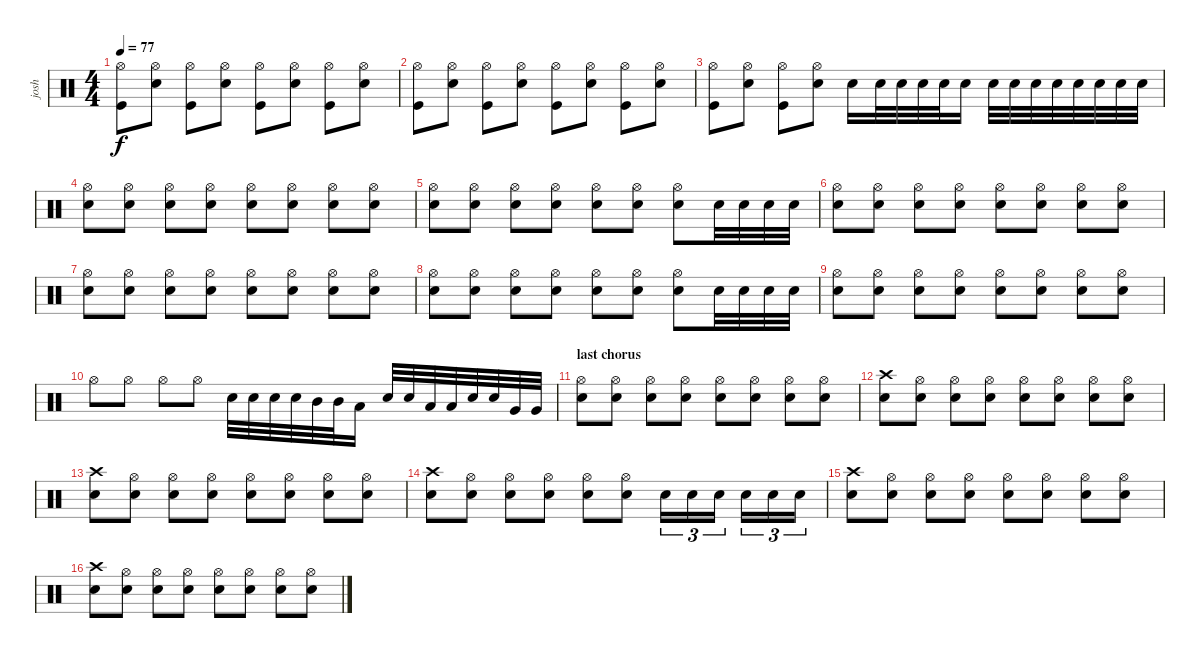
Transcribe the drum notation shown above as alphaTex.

\track ("josh" "josh") {instrument percussion}
\staff {score}
\articulation defaults
\ts (4 4)
\tempo 77
\clef neutral
\ks c
("Hi-Hat (open)" "Kick (hit)").8{dy f} ("Hi-Hat (open)" "Snare (hit) 2").8 ("Hi-Hat (open)" "Kick (hit)").8 ("Hi-Hat (open)" "Snare (hit) 2").8 ("Hi-Hat (open)" "Kick (hit)").8 ("Hi-Hat (open)" "Snare (hit) 2").8 ("Hi-Hat (open)" "Kick (hit)").8 ("Hi-Hat (open)" "Snare (hit) 2").8 |
("Hi-Hat (open)" "Kick (hit)").8 ("Hi-Hat (open)" "Snare (hit) 2").8 ("Hi-Hat (open)" "Kick (hit)").8 ("Hi-Hat (open)" "Snare (hit) 2").8 ("Hi-Hat (open)" "Kick (hit)").8 ("Hi-Hat (open)" "Snare (hit) 2").8 ("Hi-Hat (open)" "Kick (hit)").8 ("Hi-Hat (open)" "Snare (hit) 2").8 |
("Hi-Hat (open)" "Kick (hit)").8 ("Hi-Hat (open)" "Snare (hit) 2").8 ("Hi-Hat (open)" "Kick (hit)").8 ("Hi-Hat (open)" "Snare (hit) 2").8 "Snare (hit) 2".16 "Snare (hit) 2".32 "Snare (hit) 2".32 "Snare (hit) 2".32 "Snare (hit) 2".32 "Snare (hit) 2".16 "Snare (hit) 2".32 "Snare (hit) 2".32 "Snare (hit) 2".32 "Snare (hit) 2".32 "Snare (hit) 2".32 "Snare (hit) 2".32 "Snare (hit) 2".32 "Snare (hit) 2".32 |
("Hi-Hat (open)" "Snare (hit) 2").8 ("Hi-Hat (open)" "Snare (hit) 2").8 ("Hi-Hat (open)" "Snare (hit) 2").8 ("Hi-Hat (open)" "Snare (hit) 2").8 ("Hi-Hat (open)" "Snare (hit) 2").8 ("Hi-Hat (open)" "Snare (hit) 2").8 ("Hi-Hat (open)" "Snare (hit) 2").8 ("Hi-Hat (open)" "Snare (hit) 2").8 |
("Hi-Hat (open)" "Snare (hit) 2").8 ("Hi-Hat (open)" "Snare (hit) 2").8 ("Hi-Hat (open)" "Snare (hit) 2").8 ("Hi-Hat (open)" "Snare (hit) 2").8 ("Hi-Hat (open)" "Snare (hit) 2").8 ("Hi-Hat (open)" "Snare (hit) 2").8 ("Hi-Hat (open)" "Snare (hit) 2").8 "Snare (hit) 2".32 "Snare (hit) 2".32 "Snare (hit) 2".32 "Snare (hit) 2".32 |
("Hi-Hat (open)" "Snare (hit) 2").8 ("Hi-Hat (open)" "Snare (hit) 2").8 ("Hi-Hat (open)" "Snare (hit) 2").8 ("Hi-Hat (open)" "Snare (hit) 2").8 ("Hi-Hat (open)" "Snare (hit) 2").8 ("Hi-Hat (open)" "Snare (hit) 2").8 ("Hi-Hat (open)" "Snare (hit) 2").8 ("Hi-Hat (open)" "Snare (hit) 2").8 |
("Hi-Hat (open)" "Snare (hit) 2").8 ("Hi-Hat (open)" "Snare (hit) 2").8 ("Hi-Hat (open)" "Snare (hit) 2").8 ("Hi-Hat (open)" "Snare (hit) 2").8 ("Hi-Hat (open)" "Snare (hit) 2").8 ("Hi-Hat (open)" "Snare (hit) 2").8 ("Hi-Hat (open)" "Snare (hit) 2").8 ("Hi-Hat (open)" "Snare (hit) 2").8 |
("Hi-Hat (open)" "Snare (hit) 2").8 ("Hi-Hat (open)" "Snare (hit) 2").8 ("Hi-Hat (open)" "Snare (hit) 2").8 ("Hi-Hat (open)" "Snare (hit) 2").8 ("Hi-Hat (open)" "Snare (hit) 2").8 ("Hi-Hat (open)" "Snare (hit) 2").8 ("Hi-Hat (open)" "Snare (hit) 2").8 "Snare (hit) 2".32 "Snare (hit) 2".32 "Snare (hit) 2".32 "Snare (hit) 2".32 |
("Hi-Hat (open)" "Snare (hit) 2").8 ("Hi-Hat (open)" "Snare (hit) 2").8 ("Hi-Hat (open)" "Snare (hit) 2").8 ("Hi-Hat (open)" "Snare (hit) 2").8 ("Hi-Hat (open)" "Snare (hit) 2").8 ("Hi-Hat (open)" "Snare (hit) 2").8 ("Hi-Hat (open)" "Snare (hit) 2").8 ("Hi-Hat (open)" "Snare (hit) 2").8 |
"Hi-Hat (open)".8 "Hi-Hat (open)".8 "Hi-Hat (open)".8 "Hi-Hat (open)".8 "Snare (hit) 2".32 "Snare (hit) 2".32 "Snare (hit) 2".32 "Snare (hit) 2".32 "Mid Tom (hit)".32 "Mid Tom (hit)".32 "Low Tom (hit)".16 "Snare (hit) 2".32 "Snare (hit) 2".32 "Low Tom (hit)".32 "Low Tom (hit)".32 "Snare (hit) 2".32 "Snare (hit) 2".32 "Very Low Tom (hit)".32 "Very Low Tom (hit)".32 |
\section ("" "last chorus")
("Hi-Hat (open)" "Snare (hit) 2").8 ("Hi-Hat (open)" "Snare (hit) 2").8 ("Hi-Hat (open)" "Snare (hit) 2").8 ("Hi-Hat (open)" "Snare (hit) 2").8 ("Hi-Hat (open)" "Snare (hit) 2").8 ("Hi-Hat (open)" "Snare (hit) 2").8 ("Hi-Hat (open)" "Snare (hit) 2").8 ("Hi-Hat (open)" "Snare (hit) 2").8 |
("Crash high (hit)" "Snare (hit) 2").8 ("Hi-Hat (open)" "Snare (hit) 2").8 ("Hi-Hat (open)" "Snare (hit) 2").8 ("Hi-Hat (open)" "Snare (hit) 2").8 ("Hi-Hat (open)" "Snare (hit) 2").8 ("Hi-Hat (open)" "Snare (hit) 2").8 ("Hi-Hat (open)" "Snare (hit) 2").8 ("Hi-Hat (open)" "Snare (hit) 2").8 |
("Crash high (hit)" "Snare (hit) 2").8 ("Hi-Hat (open)" "Snare (hit) 2").8 ("Hi-Hat (open)" "Snare (hit) 2").8 ("Hi-Hat (open)" "Snare (hit) 2").8 ("Hi-Hat (open)" "Snare (hit) 2").8 ("Hi-Hat (open)" "Snare (hit) 2").8 ("Hi-Hat (open)" "Snare (hit) 2").8 ("Hi-Hat (open)" "Snare (hit) 2").8 |
("Crash high (hit)" "Snare (hit) 2").8 ("Hi-Hat (open)" "Snare (hit) 2").8 ("Hi-Hat (open)" "Snare (hit) 2").8 ("Hi-Hat (open)" "Snare (hit) 2").8 ("Hi-Hat (open)" "Snare (hit) 2").8 ("Hi-Hat (open)" "Snare (hit) 2").8 "Snare (hit) 2".16{tu (3 2)} "Snare (hit) 2".16{tu (3 2)} "Snare (hit) 2".16{tu (3 2)} "Snare (hit) 2".16{tu (3 2)} "Snare (hit) 2".16{tu (3 2)} "Snare (hit) 2".16{tu (3 2)} |
("Crash high (hit)" "Snare (hit) 2").8 ("Hi-Hat (open)" "Snare (hit) 2").8 ("Hi-Hat (open)" "Snare (hit) 2").8 ("Hi-Hat (open)" "Snare (hit) 2").8 ("Hi-Hat (open)" "Snare (hit) 2").8 ("Hi-Hat (open)" "Snare (hit) 2").8 ("Hi-Hat (open)" "Snare (hit) 2").8 ("Hi-Hat (open)" "Snare (hit) 2").8 |
("Crash high (hit)" "Snare (hit) 2").8 ("Hi-Hat (open)" "Snare (hit) 2").8 ("Hi-Hat (open)" "Snare (hit) 2").8 ("Hi-Hat (open)" "Snare (hit) 2").8 ("Hi-Hat (open)" "Snare (hit) 2").8 ("Hi-Hat (open)" "Snare (hit) 2").8 ("Hi-Hat (open)" "Snare (hit) 2").8 ("Hi-Hat (open)" "Snare (hit) 2").8
